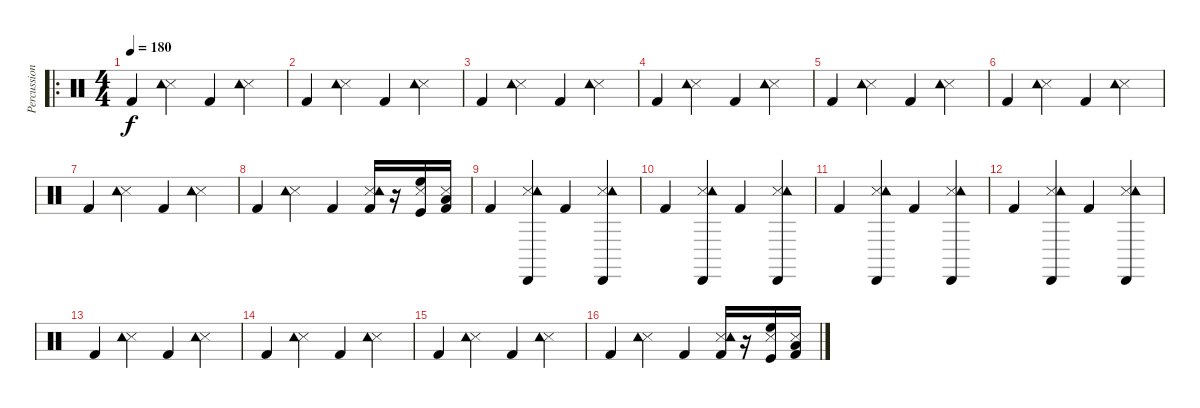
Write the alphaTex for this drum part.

\track ("Percussions" "Percussion") {instrument percussion}
\staff {score}
\articulation defaults
\ro
\ts (4 4)
\tempo 180
\clef neutral
\ks c "Kick (hit) 2".4{dy f}
("Snare (side stick) 3" "Tambourine (hit)").4 "Kick (hit) 2".4 ("Snare (side stick) 3" "Tambourine (hit)").4 |
"Kick (hit) 2".4 ("Snare (side stick) 3" "Tambourine (hit)").4 "Kick (hit) 2".4 ("Snare (side stick) 3" "Tambourine (hit)").4 |
"Kick (hit) 2".4 ("Snare (side stick) 3" "Tambourine (hit)").4 "Kick (hit) 2".4 ("Snare (side stick) 3" "Tambourine (hit)").4 |
"Kick (hit) 2".4 ("Snare (side stick) 3" "Tambourine (hit)").4 "Kick (hit) 2".4 ("Snare (side stick) 3" "Tambourine (hit)").4 |
"Kick (hit) 2".4 ("Snare (side stick) 3" "Tambourine (hit)").4 "Kick (hit) 2".4 ("Snare (side stick) 3" "Tambourine (hit)").4 |
"Kick (hit) 2".4 ("Snare (side stick) 3" "Tambourine (hit)").4 "Kick (hit) 2".4 ("Snare (side stick) 3" "Tambourine (hit)").4 |
"Kick (hit) 2".4 ("Snare (side stick) 3" "Tambourine (hit)").4 "Kick (hit) 2".4 ("Snare (side stick) 3" "Tambourine (hit)").4 |
"Kick (hit) 2".4 ("Snare (side stick) 3" "Tambourine (hit)").4 "Kick (hit) 2".4 ("Snare (side stick) 3" "Tambourine (hit)" "Kick (hit) 2").16 r.16 ("Snare (side stick) 3" "High Floor Tom (hit)" "Kick (hit)").16 ("Snare (side stick) 3" "Low Tom (hit)" "Kick (hit) 2").16 |
"Kick (hit) 2".4 ("Snare (side stick) 3" "Tambourine (hit)" "Cabasa (hit)").4 "Kick (hit) 2".4 ("Snare (side stick) 3" "Tambourine (hit)" "Cabasa (hit)").4 |
"Kick (hit) 2".4 ("Snare (side stick) 3" "Tambourine (hit)" "Cabasa (hit)").4 "Kick (hit) 2".4 ("Snare (side stick) 3" "Tambourine (hit)" "Cabasa (hit)").4 |
"Kick (hit) 2".4 ("Snare (side stick) 3" "Tambourine (hit)" "Cabasa (hit)").4 "Kick (hit) 2".4 ("Snare (side stick) 3" "Tambourine (hit)" "Cabasa (hit)").4 |
"Kick (hit) 2".4 ("Snare (side stick) 3" "Tambourine (hit)" "Cabasa (hit)").4 "Kick (hit) 2".4 ("Snare (side stick) 3" "Tambourine (hit)" "Cabasa (hit)").4 |
"Kick (hit) 2".4 ("Snare (side stick) 3" "Tambourine (hit)").4 "Kick (hit) 2".4 ("Snare (side stick) 3" "Tambourine (hit)").4 |
"Kick (hit) 2".4 ("Snare (side stick) 3" "Tambourine (hit)").4 "Kick (hit) 2".4 ("Snare (side stick) 3" "Tambourine (hit)").4 |
"Kick (hit) 2".4 ("Snare (side stick) 3" "Tambourine (hit)").4 "Kick (hit) 2".4 ("Snare (side stick) 3" "Tambourine (hit)").4 |
"Kick (hit) 2".4 ("Snare (side stick) 3" "Tambourine (hit)").4 "Kick (hit) 2".4 ("Snare (side stick) 3" "Tambourine (hit)" "Kick (hit) 2").16 r.16 ("Snare (side stick) 3" "High Floor Tom (hit)" "Kick (hit)").16 ("Snare (side stick) 3" "Low Tom (hit)" "Kick (hit) 2").16
